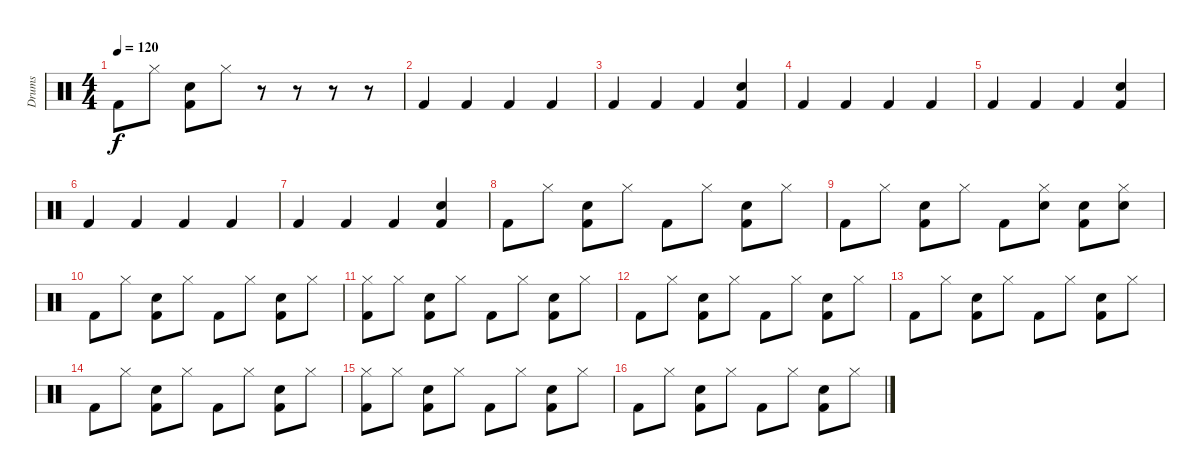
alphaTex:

\track ("Drums" "Drums") {instrument percussion}
\staff {score}
\articulation defaults
\ts (4 4)
\tempo 120
\clef neutral
\ks c "Kick (hit) 2".8{dy f} "Hi-Hat (closed)".8
("Snare (hit) 2" "Kick (hit) 2").8 "Hi-Hat (closed)".8 r.8 r.8 r.8 r.8 |
"Kick (hit) 2".4 "Kick (hit) 2".4 "Kick (hit) 2".4 "Kick (hit) 2".4 |
"Kick (hit) 2".4 "Kick (hit) 2".4 "Kick (hit) 2".4 ("Hand Clap (hit)" "Kick (hit) 2").4 |
"Kick (hit) 2".4 "Kick (hit) 2".4 "Kick (hit) 2".4 "Kick (hit) 2".4 |
"Kick (hit) 2".4 "Kick (hit) 2".4 "Kick (hit) 2".4 ("Hand Clap (hit)" "Kick (hit) 2").4 |
"Kick (hit) 2".4 "Kick (hit) 2".4 "Kick (hit) 2".4 "Kick (hit) 2".4 |
"Kick (hit) 2".4 "Kick (hit) 2".4 "Kick (hit) 2".4 ("Hand Clap (hit)" "Kick (hit) 2").4 |
"Kick (hit) 2".8 "Hi-Hat (closed)".8 ("Snare (hit) 2" "Kick (hit) 2").8 "Hi-Hat (closed)".8 "Kick (hit) 2".8 "Hi-Hat (closed)".8 ("Snare (hit) 2" "Kick (hit) 2").8 "Hi-Hat (closed)".8 |
"Kick (hit) 2".8 "Hi-Hat (closed)".8 ("Snare (hit) 2" "Kick (hit) 2").8 "Hi-Hat (closed)".8 "Kick (hit) 2".8 ("Hi-Hat (closed)" "Hand Clap (hit)").8 ("Snare (hit) 2" "Kick (hit) 2").8 ("Hi-Hat (closed)" "Hand Clap (hit)").8 |
"Kick (hit) 2".8 "Hi-Hat (closed)".8 ("Snare (hit) 2" "Kick (hit) 2").8 "Hi-Hat (closed)".8 "Kick (hit) 2".8 "Hi-Hat (closed)".8 ("Snare (hit) 2" "Kick (hit) 2").8 "Hi-Hat (closed)".8 |
("Hi-Hat (closed)" "Kick (hit) 2").8 "Hi-Hat (closed)".8 ("Snare (hit) 2" "Kick (hit) 2").8 "Hi-Hat (closed)".8 "Kick (hit) 2".8 "Hi-Hat (closed)".8 ("Snare (hit) 2" "Kick (hit) 2").8 "Hi-Hat (closed)".8 |
"Kick (hit) 2".8 "Hi-Hat (closed)".8 ("Snare (hit) 2" "Kick (hit) 2").8 "Hi-Hat (closed)".8 "Kick (hit) 2".8 "Hi-Hat (closed)".8 ("Snare (hit) 2" "Kick (hit) 2").8 "Hi-Hat (closed)".8 |
"Kick (hit) 2".8 "Hi-Hat (closed)".8 ("Snare (hit) 2" "Kick (hit) 2").8 "Hi-Hat (closed)".8 "Kick (hit) 2".8 "Hi-Hat (closed)".8 ("Snare (hit) 2" "Kick (hit) 2").8 "Hi-Hat (closed)".8 |
"Kick (hit) 2".8 "Hi-Hat (closed)".8 ("Snare (hit) 2" "Kick (hit) 2").8 "Hi-Hat (closed)".8 "Kick (hit) 2".8 "Hi-Hat (closed)".8 ("Snare (hit) 2" "Kick (hit) 2").8 "Hi-Hat (closed)".8 |
("Hi-Hat (closed)" "Kick (hit) 2").8 "Hi-Hat (closed)".8 ("Snare (hit) 2" "Kick (hit) 2").8 "Hi-Hat (closed)".8 "Kick (hit) 2".8 "Hi-Hat (closed)".8 ("Snare (hit) 2" "Kick (hit) 2").8 "Hi-Hat (closed)".8 |
"Kick (hit) 2".8 "Hi-Hat (closed)".8 ("Snare (hit) 2" "Kick (hit) 2").8 "Hi-Hat (closed)".8 "Kick (hit) 2".8 "Hi-Hat (closed)".8 ("Snare (hit) 2" "Kick (hit) 2").8 "Hi-Hat (closed)".8
